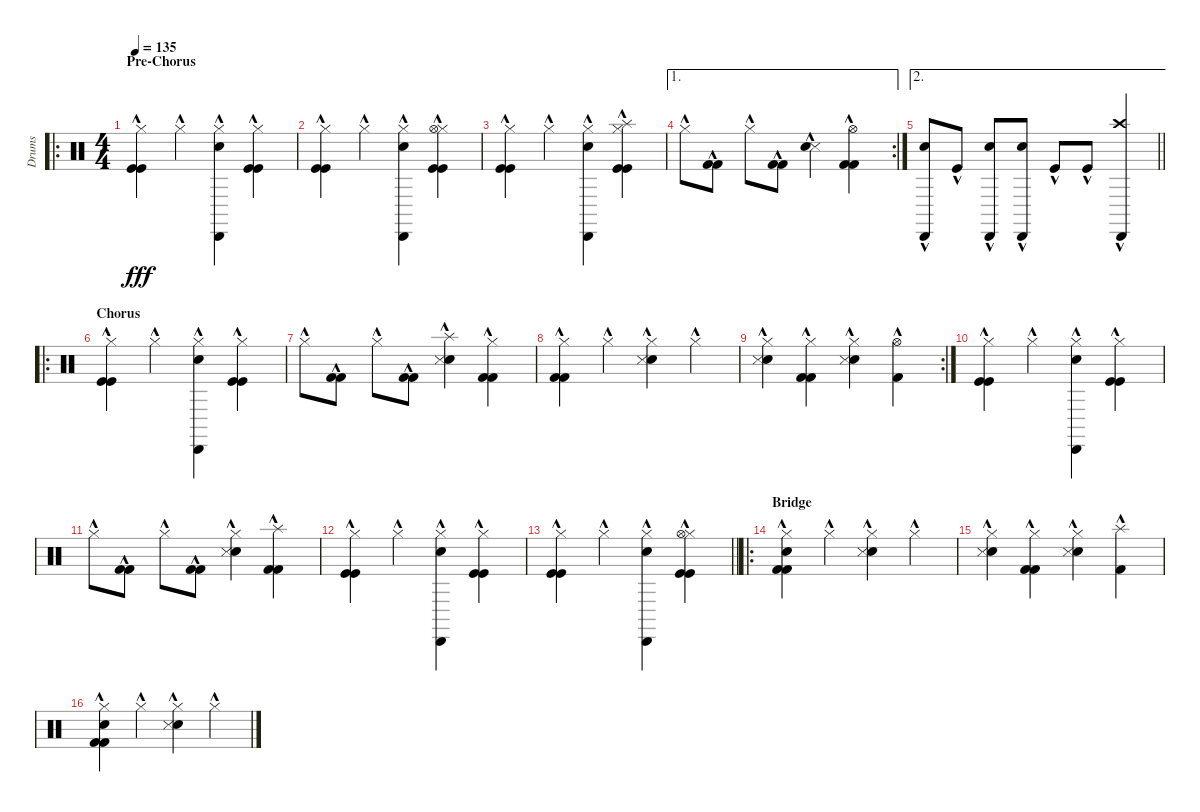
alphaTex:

\track ("Drums" "Drums") {instrument percussion}
\staff {score}
\articulation defaults
\ro
\ts (4 4)
\section ("" "Pre-Chorus")
\tempo 135
\clef neutral
\ks c
("Hi-Hat (closed)"{hac} "Kick (hit)"{hac} "Kick (hit)"{hac}).4{dy fff} "Hi-Hat (closed)"{hac}.4 ("Hi-Hat (closed)"{hac} "Cabasa (hit)"{hac} "Electric Snare (hit)"{hac}).4 ("Hi-Hat (closed)"{hac} "Kick (hit)"{hac} "Kick (hit)"{hac}).4 |
("Hi-Hat (closed)"{hac} "Kick (hit)"{hac} "Kick (hit)"{hac}).4 "Hi-Hat (closed)"{hac}.4 ("Hi-Hat (closed)"{hac} "Cabasa (hit)"{hac} "Electric Snare (hit)"{hac}).4 ("Hi-Hat (closed)"{hac} "Kick (hit)"{hac} "Kick (hit)"{hac} "Hi-Hat (open)"{hac}).4 |
("Hi-Hat (closed)"{hac} "Kick (hit)"{hac} "Kick (hit)"{hac}).4 "Hi-Hat (closed)"{hac}.4 ("Hi-Hat (closed)"{hac} "Cabasa (hit)"{hac} "Electric Snare (hit)"{hac}).4 ("Hi-Hat (closed)"{hac} "Kick (hit)"{hac} "Kick (hit)"{hac} "Splash (hit)"{hac}).4 |
\ae 1
\rc 2 "Hi-Hat (closed)"{hac}.8
("Kick (hit) 2"{hac} "Kick (hit) 2"{hac}).8 "Hi-Hat (closed)"{hac}.8 ("Kick (hit) 2"{hac} "Kick (hit) 2"{hac}).8 ("Snare (side stick) 3"{hac} "Electric Snare (hit)"{hac}).4 ("Kick (hit) 2"{hac} "Hi-Hat (open)"{hac} "Kick (hit) 2"{hac}).4 |
\ae 2
\barLineRight lightlight
("Electric Snare (hit)"{hac} "Cabasa (hit)"{hac}).8 "Kick (hit)"{hac}.8 ("Electric Snare (hit)"{hac} "Cabasa (hit)"{hac}).8 ("Electric Snare (hit)"{hac} "Cabasa (hit)"{hac}).8 "Kick (hit)"{hac}.8 "Kick (hit)"{hac}.8 ("Cabasa (hit)"{hac} "Crash high (hit)"{hac}).4 |
\ro
\section ("" "Chorus")
("Hi-Hat (closed)"{hac} "Kick (hit)"{hac} "Kick (hit)"{hac}).4 "Hi-Hat (closed)"{hac}.4 ("Hi-Hat (closed)"{hac} "Cabasa (hit)"{hac} "Electric Snare (hit)"{hac}).4 ("Hi-Hat (closed)"{hac} "Kick (hit)"{hac} "Kick (hit)"{hac}).4 |
"Hi-Hat (closed)"{hac}.8 ("Kick (hit) 2"{hac} "Kick (hit) 2"{hac}).8 "Hi-Hat (closed)"{hac}.8 ("Kick (hit) 2"{hac} "Kick (hit) 2"{hac}).8 ("Splash (hit)"{hac} "Electric Snare (hit)"{hac} "Snare (side stick) 3"{hac}).4 ("Hi-Hat (closed)" "Kick (hit) 2"{hac} "Kick (hit) 2"{hac}).4 |
("Hi-Hat (closed)"{hac} "Kick (hit) 2"{hac} "Kick (hit) 2"{hac}).4 "Hi-Hat (closed)"{hac}.4 ("Hi-Hat (closed)"{hac} "Electric Snare (hit)"{hac} "Snare (side stick) 3"{hac}).4 "Hi-Hat (closed)"{hac}.4 |
\rc 2
("Hi-Hat (closed)"{hac} "Electric Snare (hit)"{hac} "Snare (side stick) 3"{hac}).4 ("Hi-Hat (closed)"{hac} "Kick (hit) 2"{hac} "Kick (hit) 2"{hac}).4 ("Hi-Hat (closed)"{hac} "Electric Snare (hit)"{hac} "Snare (side stick) 3"{hac}).4 ("Hi-Hat (open)"{hac} "Kick (hit) 2"{hac}).4 |
("Hi-Hat (closed)"{hac} "Kick (hit)"{hac} "Kick (hit)"{hac}).4 "Hi-Hat (closed)"{hac}.4 ("Hi-Hat (closed)"{hac} "Cabasa (hit)"{hac} "Electric Snare (hit)"{hac}).4 ("Hi-Hat (closed)"{hac} "Kick (hit)"{hac} "Kick (hit)"{hac}).4 |
"Hi-Hat (closed)"{hac}.8 ("Kick (hit) 2"{hac} "Kick (hit) 2"{hac}).8 "Hi-Hat (closed)"{hac}.8 ("Kick (hit) 2"{hac} "Kick (hit) 2"{hac}).8 ("Hi-Hat (closed)" "Electric Snare (hit)"{hac} "Snare (side stick) 3"{hac}).4 ("Splash (hit)"{hac} "Kick (hit) 2"{hac} "Kick (hit) 2"{hac}).4 |
("Hi-Hat (closed)"{hac} "Kick (hit)"{hac} "Kick (hit)"{hac}).4 "Hi-Hat (closed)"{hac}.4 ("Hi-Hat (closed)"{hac} "Cabasa (hit)"{hac} "Electric Snare (hit)"{hac}).4 ("Hi-Hat (closed)"{hac} "Kick (hit)"{hac} "Kick (hit)"{hac}).4 |
\barLineRight lightlight
("Hi-Hat (closed)"{hac} "Kick (hit)"{hac} "Kick (hit)"{hac}).4 "Hi-Hat (closed)"{hac}.4 ("Hi-Hat (closed)"{hac} "Cabasa (hit)"{hac} "Electric Snare (hit)"{hac}).4 ("Hi-Hat (closed)"{hac} "Kick (hit)"{hac} "Kick (hit)"{hac} "Hi-Hat (open)"{hac}).4 |
\ro
\section ("" "Bridge")
("Hi-Hat (closed)"{hac} "Kick (hit) 2"{hac} "Kick (hit) 2"{hac} "Electric Snare (hit)").4 "Hi-Hat (closed)"{hac}.4 ("Hi-Hat (closed)"{hac} "Electric Snare (hit)"{hac} "Snare (side stick) 3"{hac}).4 "Hi-Hat (closed)"{hac}.4 |
("Hi-Hat (closed)"{hac} "Electric Snare (hit)"{hac} "Snare (side stick) 3"{hac}).4 ("Hi-Hat (closed)"{hac} "Kick (hit) 2"{hac} "Kick (hit) 2"{hac}).4 ("Hi-Hat (closed)"{hac} "Electric Snare (hit)"{hac} "Snare (side stick) 3"{hac}).4 ("Splash (hit)"{hac} "Kick (hit) 2"{hac}).4 |
("Hi-Hat (closed)"{hac} "Kick (hit) 2"{hac} "Kick (hit) 2"{hac} "Electric Snare (hit)").4 "Hi-Hat (closed)"{hac}.4 ("Hi-Hat (closed)"{hac} "Electric Snare (hit)"{hac} "Snare (side stick) 3"{hac}).4 "Hi-Hat (closed)"{hac}.4
